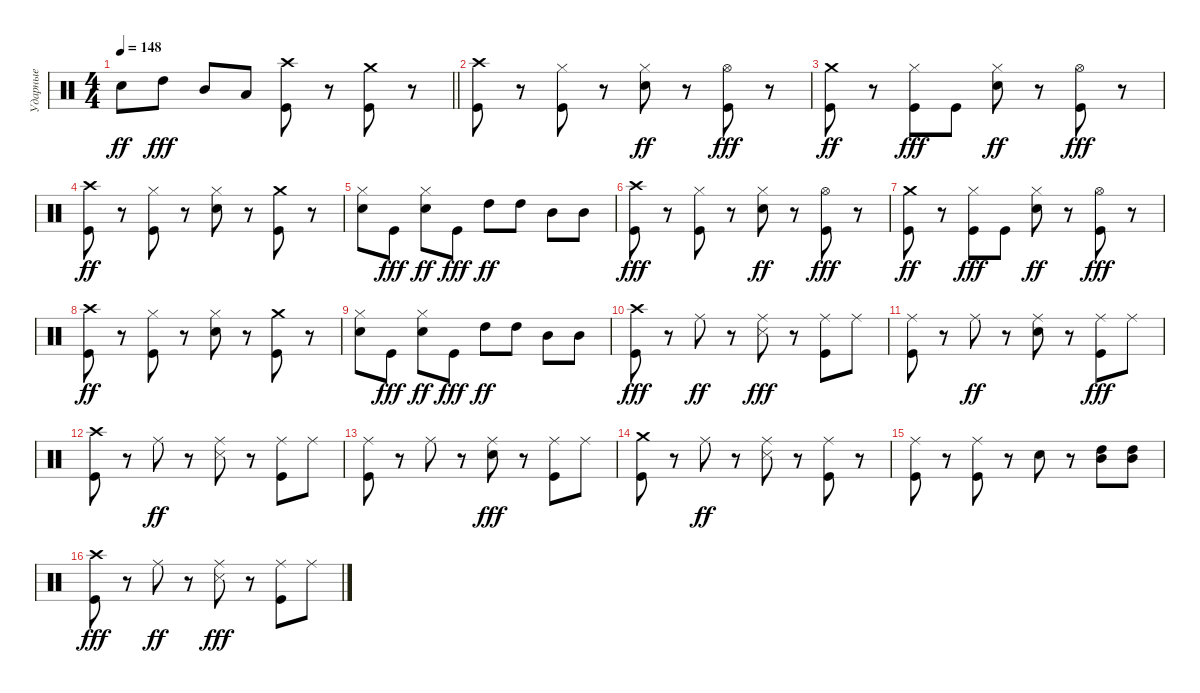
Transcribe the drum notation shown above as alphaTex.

\track ("Ударные" "Ударные") {instrument percussion}
\staff {score}
\articulation defaults
\ts (4 4)
\tempo 148
\clef neutral
\barLineRight lightlight
\ks c "Snare (hit) 2".8{dy ff} "High Tom (hit)".8{dy fff} "Mid Tom (hit)".8 "Low Tom (hit)".8
("Crash high (hit)" "Kick (hit)").8 r.8 ("Crash medium (hit)" "Kick (hit)").8 r.8 |
("Crash high (hit)" "Kick (hit)").8 r.8 ("Hi-Hat (closed)" "Kick (hit)").8 r.8 ("Hi-Hat (closed)" "Snare (hit) 2").8{dy ff} r.8 ("Hi-Hat (open)" "Kick (hit)").8{dy fff} r.8 |
("Kick (hit)" "Crash medium (hit)").8{dy ff} r.8 ("Hi-Hat (closed)" "Kick (hit)").8{dy fff} "Kick (hit)".8 ("Hi-Hat (closed)" "Snare (hit) 2").8{dy ff} r.8 ("Hi-Hat (open)" "Kick (hit)").8{dy fff} r.8 |
("Kick (hit)" "Crash high (hit)").8{dy ff} r.8 ("Kick (hit)" "Hi-Hat (closed)").8 r.8 ("Snare (hit) 2" "Hi-Hat (closed)").8 r.8 ("Kick (hit)" "Crash medium (hit)").8 r.8 |
("Hi-Hat (closed)" "Snare (hit) 2").8 "Kick (hit)".8{dy fff} ("Hi-Hat (closed)" "Snare (hit) 2").8{dy ff} "Kick (hit)".8{dy fff} "High Tom (hit)".8{dy ff} "High Tom (hit)".8 "Mid Tom (hit)".8 "Mid Tom (hit)".8 |
("Crash high (hit)" "Kick (hit)").8{dy fff} r.8 ("Hi-Hat (closed)" "Kick (hit)").8 r.8 ("Hi-Hat (closed)" "Snare (hit) 2").8{dy ff} r.8 ("Hi-Hat (open)" "Kick (hit)").8{dy fff} r.8 |
("Kick (hit)" "Crash medium (hit)").8{dy ff} r.8 ("Hi-Hat (closed)" "Kick (hit)").8{dy fff} "Kick (hit)".8 ("Hi-Hat (closed)" "Snare (hit) 2").8{dy ff} r.8 ("Hi-Hat (open)" "Kick (hit)").8{dy fff} r.8 |
("Kick (hit)" "Crash high (hit)").8{dy ff} r.8 ("Kick (hit)" "Hi-Hat (closed)").8 r.8 ("Snare (hit) 2" "Hi-Hat (closed)").8 r.8 ("Kick (hit)" "Crash medium (hit)").8 r.8 |
("Hi-Hat (closed)" "Snare (hit) 2").8 "Kick (hit)".8{dy fff} ("Hi-Hat (closed)" "Snare (hit) 2").8{dy ff} "Kick (hit)".8{dy fff} "High Tom (hit)".8{dy ff} "High Tom (hit)".8 "Mid Tom (hit)".8 "Mid Tom (hit)".8 |
("Kick (hit)" "Crash high (hit)").8{dy fff} r.8 "Ride (middle)".8{dy ff} r.8 ("Snare (side stick) 3" "Ride (middle)").8{dy fff} r.8 ("Kick (hit)" "Ride (middle)").8 "Ride (middle)".8 |
("Kick (hit)" "Ride (middle)").8 r.8 "Ride (middle)".8{dy ff} r.8 ("Ride (middle)" "Snare (hit) 2").8 r.8 ("Kick (hit)" "Ride (middle)").8{dy fff} "Ride (middle)".8 |
("Kick (hit)" "Crash high (hit)").8 r.8 "Ride (middle)".8{dy ff} r.8 ("Ride (middle)" "Snare (side stick) 3").8 r.8 ("Kick (hit)" "Ride (middle)").8 "Ride (middle)".8 |
("Kick (hit)" "Ride (middle)").8 r.8 "Ride (middle)".8 r.8 ("Ride (middle)" "Snare (hit) 2").8{dy fff} r.8 ("Ride (middle)" "Kick (hit)").8 "Ride (middle)".8 |
("Crash medium (hit)" "Kick (hit)").8 r.8 "Ride (middle)".8{dy ff} r.8 ("Snare (side stick) 3" "Ride (middle)").8 r.8 ("Kick (hit)" "Ride (middle)").8 r.8 |
("Kick (hit)" "Ride (middle)").8 r.8 ("Kick (hit)" "Ride (middle)").8 r.8 "Snare (hit) 2".8 r.8 ("Mid Tom (hit)" "High Tom (hit)").8 ("Mid Tom (hit)" "High Tom (hit)").8 |
("Kick (hit)" "Crash high (hit)").8{dy fff} r.8 "Ride (middle)".8{dy ff} r.8 ("Snare (side stick) 3" "Ride (middle)").8{dy fff} r.8 ("Kick (hit)" "Ride (middle)").8 "Ride (middle)".8
